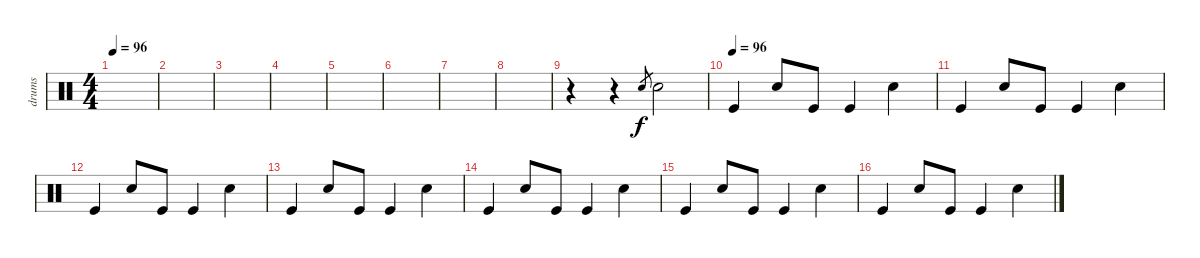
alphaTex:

\track ("drums" "drums") {instrument percussion}
\staff {score}
\articulation defaults
\ts (4 4)
\tempo 96
\clef neutral
\ks c
|
|
|
|
|
|
|
|
r.4 r.4 "Snare (hit) 2".8{gr} "Snare (hit) 2".2 |
\tempo (96)
"Kick (hit)".4 "Snare (hit) 2".8 "Kick (hit)".8 "Kick (hit)".4 "Snare (hit) 2".4 |
"Kick (hit)".4 "Snare (hit) 2".8 "Kick (hit)".8 "Kick (hit)".4 "Snare (hit) 2".4 |
"Kick (hit)".4 "Snare (hit) 2".8 "Kick (hit)".8 "Kick (hit)".4 "Snare (hit) 2".4 |
"Kick (hit)".4 "Snare (hit) 2".8 "Kick (hit)".8 "Kick (hit)".4 "Snare (hit) 2".4 |
"Kick (hit)".4 "Snare (hit) 2".8 "Kick (hit)".8 "Kick (hit)".4 "Snare (hit) 2".4 |
"Kick (hit)".4 "Snare (hit) 2".8 "Kick (hit)".8 "Kick (hit)".4 "Snare (hit) 2".4 |
"Kick (hit)".4 "Snare (hit) 2".8 "Kick (hit)".8 "Kick (hit)".4 "Snare (hit) 2".4
